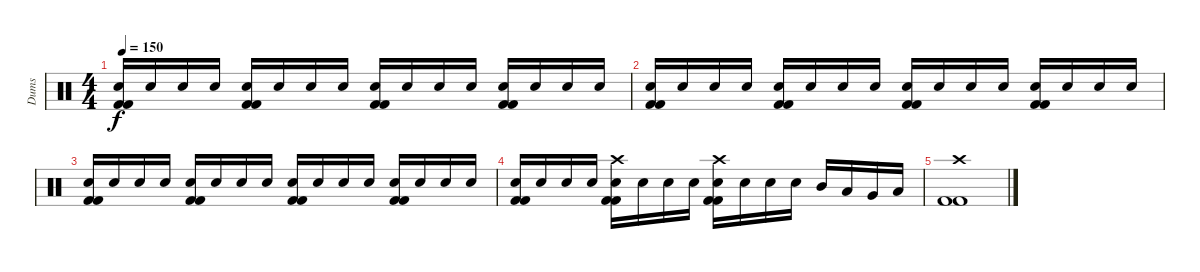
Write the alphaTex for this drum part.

\track ("Dums" "Dums") {instrument percussion}
\staff {score}
\articulation defaults
\ts (4 4)
\tempo 150
\clef neutral
\ks c
("Electric Snare (hit)" "Kick (hit) 2" "Kick (hit) 2").16{dy f} "Electric Snare (hit)".16 "Electric Snare (hit)".16 "Electric Snare (hit)".16 ("Electric Snare (hit)" "Kick (hit) 2" "Kick (hit) 2").16 "Electric Snare (hit)".16 "Electric Snare (hit)".16 "Electric Snare (hit)".16 ("Electric Snare (hit)" "Kick (hit) 2" "Kick (hit) 2").16 "Electric Snare (hit)".16 "Electric Snare (hit)".16 "Electric Snare (hit)".16 ("Electric Snare (hit)" "Kick (hit) 2" "Kick (hit) 2").16 "Electric Snare (hit)".16 "Electric Snare (hit)".16 "Electric Snare (hit)".16 |
("Electric Snare (hit)" "Kick (hit) 2" "Kick (hit) 2").16 "Electric Snare (hit)".16 "Electric Snare (hit)".16 "Electric Snare (hit)".16 ("Electric Snare (hit)" "Kick (hit) 2" "Kick (hit) 2").16 "Electric Snare (hit)".16 "Electric Snare (hit)".16 "Electric Snare (hit)".16 ("Electric Snare (hit)" "Kick (hit) 2" "Kick (hit) 2").16 "Electric Snare (hit)".16 "Electric Snare (hit)".16 "Electric Snare (hit)".16 ("Electric Snare (hit)" "Kick (hit) 2" "Kick (hit) 2").16 "Electric Snare (hit)".16 "Electric Snare (hit)".16 "Electric Snare (hit)".16 |
("Electric Snare (hit)" "Kick (hit) 2" "Kick (hit) 2").16 "Electric Snare (hit)".16 "Electric Snare (hit)".16 "Electric Snare (hit)".16 ("Electric Snare (hit)" "Kick (hit) 2" "Kick (hit) 2").16 "Electric Snare (hit)".16 "Electric Snare (hit)".16 "Electric Snare (hit)".16 ("Electric Snare (hit)" "Kick (hit) 2" "Kick (hit) 2").16 "Electric Snare (hit)".16 "Electric Snare (hit)".16 "Electric Snare (hit)".16 ("Electric Snare (hit)" "Kick (hit) 2" "Kick (hit) 2").16 "Electric Snare (hit)".16 "Electric Snare (hit)".16 "Electric Snare (hit)".16 |
("Electric Snare (hit)" "Kick (hit) 2" "Kick (hit) 2").16 "Electric Snare (hit)".16 "Electric Snare (hit)".16 "Electric Snare (hit)".16 ("Crash high (hit)" "Electric Snare (hit)" "Kick (hit) 2" "Kick (hit) 2").16 "Electric Snare (hit)".16 "Electric Snare (hit)".16 "Electric Snare (hit)".16 ("Crash high (hit)" "Electric Snare (hit)" "Kick (hit) 2" "Kick (hit) 2").16 "Electric Snare (hit)".16 "Electric Snare (hit)".16 "Electric Snare (hit)".16 "Mid Tom (hit)".16 "Low Tom (hit)".16 "Very Low Tom (hit)".16 "Low Floor Tom (hit)".16 |
("Crash high (hit)" "Kick (hit) 2" "Kick (hit) 2").1
